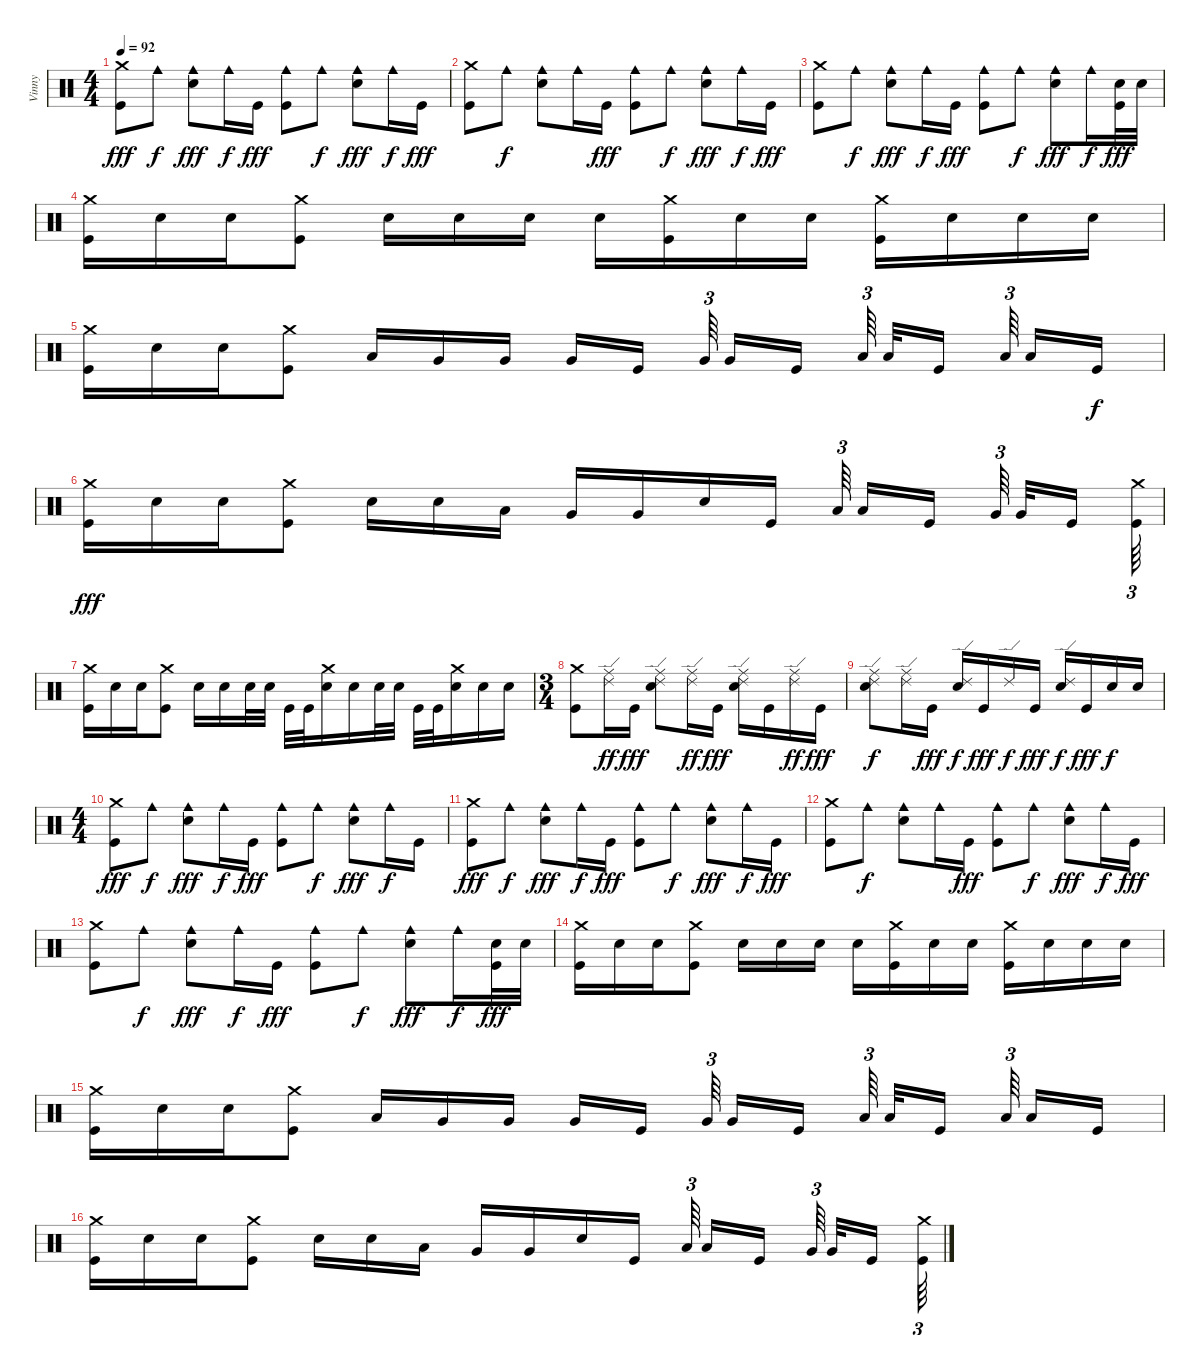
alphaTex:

\track ("Vinny" "Vinny") {instrument percussion}
\staff {score}
\articulation defaults
\ts (4 4)
\tempo 92
\clef neutral
\ks c
("Crash medium (hit)" "Kick (hit)").8{dy fff} "Cowbell medium (hit)".8{dy f} ("Cowbell medium (hit)" "Electric Snare (hit)").8{dy fff} "Cowbell medium (hit)".16{dy f} "Kick (hit)".16{dy fff} ("Cowbell medium (hit)" "Kick (hit)").8 "Cowbell medium (hit)".8{dy f} ("Cowbell medium (hit)" "Electric Snare (hit)").8{dy fff} "Cowbell medium (hit)".16{dy f} "Kick (hit)".16{dy fff} |
("Crash medium (hit)" "Kick (hit)").8 "Cowbell medium (hit)".8{dy f} ("Cowbell medium (hit)" "Electric Snare (hit)").8 "Cowbell medium (hit)".16 "Kick (hit)".16{dy fff} ("Cowbell medium (hit)" "Kick (hit)").8 "Cowbell medium (hit)".8{dy f} ("Cowbell medium (hit)" "Electric Snare (hit)").8{dy fff} "Cowbell medium (hit)".16{dy f} "Kick (hit)".16{dy fff} |
("Crash medium (hit)" "Kick (hit)").8 "Cowbell medium (hit)".8{dy f} ("Cowbell medium (hit)" "Electric Snare (hit)").8{dy fff} "Cowbell medium (hit)".16{dy f} "Kick (hit)".16{dy fff} ("Cowbell medium (hit)" "Kick (hit)").8 "Cowbell medium (hit)".8{dy f} ("Cowbell medium (hit)" "Electric Snare (hit)").8{dy fff} "Cowbell medium (hit)".16{dy f} ("Electric Snare (hit)" "Kick (hit)").32{dy fff} "Electric Snare (hit)".32 |
\section ("" "")
("Crash medium (hit)" "Kick (hit)").16 "Electric Snare (hit)".16 "Electric Snare (hit)".16 ("Crash medium (hit)" "Kick (hit)").8 "Electric Snare (hit)".16 "Electric Snare (hit)".16 "Electric Snare (hit)".16 "Electric Snare (hit)".16 ("Crash medium (hit)" "Kick (hit)").16 "Electric Snare (hit)".16 "Electric Snare (hit)".16 ("Crash medium (hit)" "Kick (hit)").16 "Electric Snare (hit)".16 "Electric Snare (hit)".16 "Electric Snare (hit)".16 |
("Crash medium (hit)" "Kick (hit)").16 "Electric Snare (hit)".16 "Electric Snare (hit)".16 ("Crash medium (hit)" "Kick (hit)").8 "Low Tom (hit)".16 "Very Low Tom (hit)".16 "Very Low Tom (hit)".16 "Very Low Tom (hit)".16 "Kick (hit)".16 "Very Low Tom (hit)".64{tu (3 2)} "Very Low Tom (hit)".16 "Kick (hit)".16 "Low Floor Tom (hit)".64{tu (3 2)} "Low Floor Tom (hit)".32 "Kick (hit)".16 "Low Floor Tom (hit)".64{tu (3 2)} "Low Floor Tom (hit)".16 "Kick (hit)".16{dy f} |
("Crash medium (hit)" "Kick (hit)").16{dy fff} "Electric Snare (hit)".16 "Electric Snare (hit)".16 ("Crash medium (hit)" "Kick (hit)").8 "Electric Snare (hit)".16 "Electric Snare (hit)".16 "Low Tom (hit)".16 "Very Low Tom (hit)".16 "Very Low Tom (hit)".16 "Electric Snare (hit)".16 "Kick (hit)".16 "Low Tom (hit)".64{tu (3 2)} "Low Tom (hit)".16 "Kick (hit)".16 "Very Low Tom (hit)".64{tu (3 2)} "Very Low Tom (hit)".32 "Kick (hit)".16 ("Crash medium (hit)" "Kick (hit)").64{tu (3 2)} |
("Crash medium (hit)" "Kick (hit)").16 "Electric Snare (hit)".16 "Electric Snare (hit)".16 ("Crash medium (hit)" "Kick (hit)").8 "Electric Snare (hit)".16 "Electric Snare (hit)".16 "Electric Snare (hit)".32 "Electric Snare (hit)".32 "Kick (hit)".32 "Kick (hit)".32 ("Crash medium (hit)" "Electric Snare (hit)").16 "Electric Snare (hit)".16 "Electric Snare (hit)".32 "Electric Snare (hit)".32 "Kick (hit)".32 "Kick (hit)".32 ("Crash medium (hit)" "Electric Snare (hit)").16 "Electric Snare (hit)".16 "Electric Snare (hit)".16 |
\ts (3 4)
\section ("" "")
("Crash medium (hit)" "Kick (hit)").8 ("Ride (middle)" "Ride (edge) 2").16{dy ff} "Kick (hit)".16{dy fff} ("Ride (middle)" "Ride (edge) 2" "Electric Snare (hit)").8 ("Ride (middle)" "Ride (edge) 2").16{dy ff} "Kick (hit)".16{dy fff} ("Ride (middle)" "Ride (edge) 2" "Electric Snare (hit)").16 "Kick (hit)".16 ("Ride (middle)" "Ride (edge) 2").16{dy ff} "Kick (hit)".16{dy fff} |
("Ride (middle)" "Ride (edge) 2" "Electric Snare (hit)").8{dy f} ("Ride (middle)" "Ride (edge) 2").16 "Kick (hit)".16{dy fff} ("Ride (edge) 2" "Electric Snare (hit)").16{dy f} "Kick (hit)".16{dy fff} "Ride (edge) 2".16{dy f} "Kick (hit)".16{dy fff} ("Ride (edge) 2" "Electric Snare (hit)").16{dy f} "Kick (hit)".16{dy fff} "Electric Snare (hit)".16{dy f} "Electric Snare (hit)".16 |
\ts (4 4)
\section ("" "")
("Crash medium (hit)" "Kick (hit)").8{dy fff} "Cowbell medium (hit)".8{dy f} ("Cowbell medium (hit)" "Electric Snare (hit)").8{dy fff} "Cowbell medium (hit)".16{dy f} "Kick (hit)".16{dy fff} ("Cowbell medium (hit)" "Kick (hit)").8 "Cowbell medium (hit)".8{dy f} ("Cowbell medium (hit)" "Electric Snare (hit)").8{dy fff} "Cowbell medium (hit)".16{dy f} "Kick (hit)".16 |
("Crash medium (hit)" "Kick (hit)").8{dy fff} "Cowbell medium (hit)".8{dy f} ("Cowbell medium (hit)" "Electric Snare (hit)").8{dy fff} "Cowbell medium (hit)".16{dy f} "Kick (hit)".16{dy fff} ("Cowbell medium (hit)" "Kick (hit)").8 "Cowbell medium (hit)".8{dy f} ("Cowbell medium (hit)" "Electric Snare (hit)").8{dy fff} "Cowbell medium (hit)".16{dy f} "Kick (hit)".16{dy fff} |
("Crash medium (hit)" "Kick (hit)").8 "Cowbell medium (hit)".8{dy f} ("Cowbell medium (hit)" "Electric Snare (hit)").8 "Cowbell medium (hit)".16 "Kick (hit)".16{dy fff} ("Cowbell medium (hit)" "Kick (hit)").8 "Cowbell medium (hit)".8{dy f} ("Cowbell medium (hit)" "Electric Snare (hit)").8{dy fff} "Cowbell medium (hit)".16{dy f} "Kick (hit)".16{dy fff} |
("Crash medium (hit)" "Kick (hit)").8 "Cowbell medium (hit)".8{dy f} ("Cowbell medium (hit)" "Electric Snare (hit)").8{dy fff} "Cowbell medium (hit)".16{dy f} "Kick (hit)".16{dy fff} ("Cowbell medium (hit)" "Kick (hit)").8 "Cowbell medium (hit)".8{dy f} ("Cowbell medium (hit)" "Electric Snare (hit)").8{dy fff} "Cowbell medium (hit)".16{dy f} ("Electric Snare (hit)" "Kick (hit)").32{dy fff} "Electric Snare (hit)".32 |
\section ("" "")
("Crash medium (hit)" "Kick (hit)").16 "Electric Snare (hit)".16 "Electric Snare (hit)".16 ("Crash medium (hit)" "Kick (hit)").8 "Electric Snare (hit)".16 "Electric Snare (hit)".16 "Electric Snare (hit)".16 "Electric Snare (hit)".16 ("Crash medium (hit)" "Kick (hit)").16 "Electric Snare (hit)".16 "Electric Snare (hit)".16 ("Crash medium (hit)" "Kick (hit)").16 "Electric Snare (hit)".16 "Electric Snare (hit)".16 "Electric Snare (hit)".16 |
("Crash medium (hit)" "Kick (hit)").16 "Electric Snare (hit)".16 "Electric Snare (hit)".16 ("Crash medium (hit)" "Kick (hit)").8 "Low Tom (hit)".16 "Very Low Tom (hit)".16 "Very Low Tom (hit)".16 "Very Low Tom (hit)".16 "Kick (hit)".16 "Very Low Tom (hit)".64{tu (3 2)} "Very Low Tom (hit)".16 "Kick (hit)".16 "Low Floor Tom (hit)".64{tu (3 2)} "Low Floor Tom (hit)".32 "Kick (hit)".16 "Low Floor Tom (hit)".64{tu (3 2)} "Low Floor Tom (hit)".16 "Kick (hit)".16 |
("Crash medium (hit)" "Kick (hit)").16 "Electric Snare (hit)".16 "Electric Snare (hit)".16 ("Crash medium (hit)" "Kick (hit)").8 "Electric Snare (hit)".16 "Electric Snare (hit)".16 "Low Tom (hit)".16 "Very Low Tom (hit)".16 "Very Low Tom (hit)".16 "Electric Snare (hit)".16 "Kick (hit)".16 "Low Tom (hit)".64{tu (3 2)} "Low Tom (hit)".16 "Kick (hit)".16 "Very Low Tom (hit)".64{tu (3 2)} "Very Low Tom (hit)".32 "Kick (hit)".16 ("Crash medium (hit)" "Kick (hit)").64{tu (3 2)}
